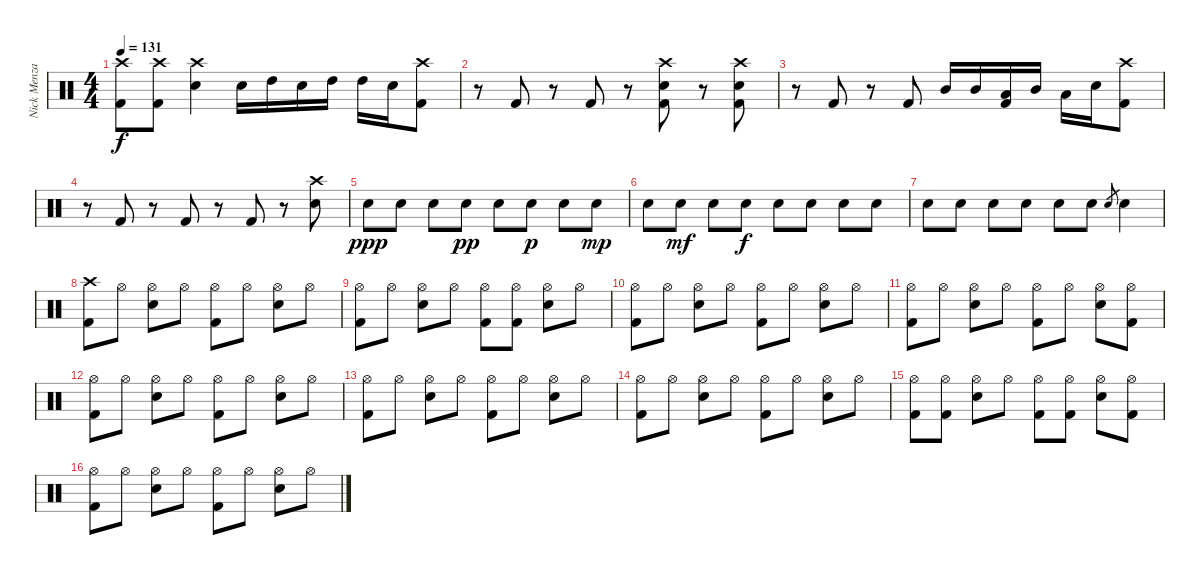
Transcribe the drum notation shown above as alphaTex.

\track ("Nick Menza" "Nick Menza") {instrument percussion}
\staff {score}
\articulation defaults
\ts (4 4)
\tempo 131
\clef neutral
\ks c
("Crash high (hit)" "Kick (hit) 2").8{dy f} ("Crash high (hit)" "Kick (hit) 2").8 ("Crash high (hit)" "Snare (hit) 2").4 "Snare (hit) 2".16 "High Tom (hit)".16 "Snare (hit) 2".16 "High Tom (hit)".16 "High Tom (hit)".16 "Snare (hit) 2".16 ("Crash high (hit)" "Kick (hit) 2").8 |
r.8 "Kick (hit) 2".8 r.8 "Kick (hit) 2".8 r.8 ("Crash high (hit)" "Snare (hit) 2" "Kick (hit) 2").8 r.8 ("Crash high (hit)" "Snare (hit) 2" "Kick (hit) 2").8 |
r.8 "Kick (hit) 2".8 r.8 "Kick (hit) 2".8 "Mid Tom (hit)".16 "Mid Tom (hit)".16 ("Low Tom (hit)" "Kick (hit) 2").16 "Mid Tom (hit)".16 "Low Tom (hit)".16 "Snare (hit) 2".16 ("Crash high (hit)" "Kick (hit) 2").8 |
r.8 "Kick (hit) 2".8 r.8 "Kick (hit) 2".8 r.8 "Kick (hit) 2".8 r.8 ("Crash high (hit)" "Snare (hit) 2").8 |
"Snare (hit) 2".8{dy ppp} "Snare (hit) 2".8 "Snare (hit) 2".8 "Snare (hit) 2".8{dy pp} "Snare (hit) 2".8 "Snare (hit) 2".8{dy p} "Snare (hit) 2".8 "Snare (hit) 2".8{dy mp} |
"Snare (hit) 2".8 "Snare (hit) 2".8{dy mf} "Snare (hit) 2".8 "Snare (hit) 2".8{dy f} "Snare (hit) 2".8 "Snare (hit) 2".8 "Snare (hit) 2".8 "Snare (hit) 2".8 |
"Snare (hit) 2".8 "Snare (hit) 2".8 "Snare (hit) 2".8 "Snare (hit) 2".8 "Snare (hit) 2".8 "Snare (hit) 2".8 "Snare (hit) 2".8{gr} "Snare (hit) 2".4 |
("Crash high (hit)" "Kick (hit) 2").8 "Hi-Hat (open)".8 ("Hi-Hat (open)" "Snare (hit) 2").8 "Hi-Hat (open)".8 ("Hi-Hat (open)" "Kick (hit) 2").8 "Hi-Hat (open)".8 ("Hi-Hat (open)" "Snare (hit) 2").8 "Hi-Hat (open)".8 |
("Hi-Hat (open)" "Kick (hit) 2").8 "Hi-Hat (open)".8 ("Hi-Hat (open)" "Snare (hit) 2").8 "Hi-Hat (open)".8 ("Hi-Hat (open)" "Kick (hit) 2").8 ("Hi-Hat (open)" "Kick (hit) 2").8 ("Hi-Hat (open)" "Snare (hit) 2").8 "Hi-Hat (open)".8 |
("Hi-Hat (open)" "Kick (hit) 2").8 "Hi-Hat (open)".8 ("Hi-Hat (open)" "Snare (hit) 2").8 "Hi-Hat (open)".8 ("Hi-Hat (open)" "Kick (hit) 2").8 "Hi-Hat (open)".8 ("Hi-Hat (open)" "Snare (hit) 2").8 "Hi-Hat (open)".8 |
("Hi-Hat (open)" "Kick (hit) 2").8 "Hi-Hat (open)".8 ("Hi-Hat (open)" "Snare (hit) 2").8 "Hi-Hat (open)".8 ("Hi-Hat (open)" "Kick (hit) 2").8 "Hi-Hat (open)".8 ("Hi-Hat (open)" "Snare (hit) 2").8 ("Hi-Hat (open)" "Kick (hit) 2").8 |
("Hi-Hat (open)" "Kick (hit) 2").8 "Hi-Hat (open)".8 ("Hi-Hat (open)" "Snare (hit) 2").8 "Hi-Hat (open)".8 ("Hi-Hat (open)" "Kick (hit) 2").8 "Hi-Hat (open)".8 ("Hi-Hat (open)" "Snare (hit) 2").8 "Hi-Hat (open)".8 |
("Hi-Hat (open)" "Kick (hit) 2").8 "Hi-Hat (open)".8 ("Hi-Hat (open)" "Snare (hit) 2").8 "Hi-Hat (open)".8 ("Hi-Hat (open)" "Kick (hit) 2").8 "Hi-Hat (open)".8 ("Hi-Hat (open)" "Snare (hit) 2").8 "Hi-Hat (open)".8 |
("Hi-Hat (open)" "Kick (hit) 2").8 "Hi-Hat (open)".8 ("Hi-Hat (open)" "Snare (hit) 2").8 "Hi-Hat (open)".8 ("Hi-Hat (open)" "Kick (hit) 2").8 "Hi-Hat (open)".8 ("Hi-Hat (open)" "Snare (hit) 2").8 "Hi-Hat (open)".8 |
("Hi-Hat (open)" "Kick (hit) 2").8 ("Hi-Hat (open)" "Kick (hit) 2").8 ("Hi-Hat (open)" "Snare (hit) 2").8 "Hi-Hat (open)".8 ("Hi-Hat (open)" "Kick (hit) 2").8 ("Hi-Hat (open)" "Kick (hit) 2").8 ("Hi-Hat (open)" "Snare (hit) 2").8 ("Hi-Hat (open)" "Kick (hit) 2").8 |
("Hi-Hat (open)" "Kick (hit) 2").8 "Hi-Hat (open)".8 ("Hi-Hat (open)" "Snare (hit) 2").8 "Hi-Hat (open)".8 ("Hi-Hat (open)" "Kick (hit) 2").8 "Hi-Hat (open)".8 ("Hi-Hat (open)" "Snare (hit) 2").8 "Hi-Hat (open)".8
